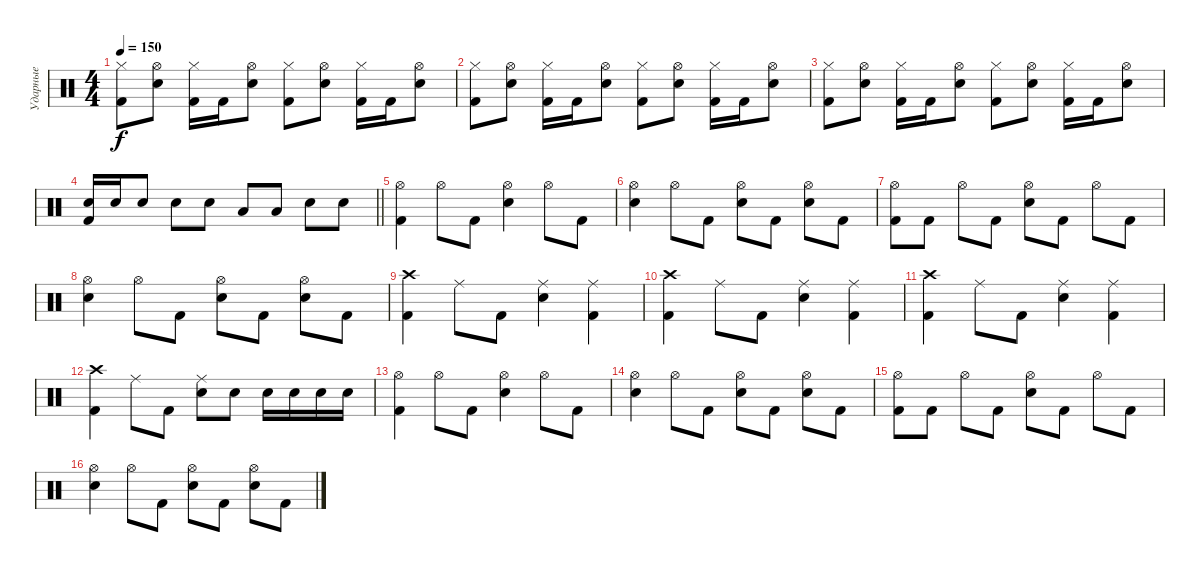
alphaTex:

\track ("Ударные" "Ударные") {instrument percussion}
\staff {score}
\articulation defaults
\ts (4 4)
\tempo 150
\clef neutral
\ks c
("Hi-Hat (closed)" "Kick (hit) 2").8{dy f} ("Hi-Hat (open)" "Snare (hit) 2").8 ("Hi-Hat (closed)" "Kick (hit) 2").16 "Kick (hit) 2".16 ("Hi-Hat (open)" "Snare (hit) 2").8 ("Hi-Hat (closed)" "Kick (hit) 2").8 ("Hi-Hat (open)" "Snare (hit) 2").8 ("Hi-Hat (closed)" "Kick (hit) 2").16 "Kick (hit) 2".16 ("Hi-Hat (open)" "Snare (hit) 2").8 |
("Hi-Hat (closed)" "Kick (hit) 2").8 ("Hi-Hat (open)" "Snare (hit) 2").8 ("Hi-Hat (closed)" "Kick (hit) 2").16 "Kick (hit) 2".16 ("Hi-Hat (open)" "Snare (hit) 2").8 ("Hi-Hat (closed)" "Kick (hit) 2").8 ("Hi-Hat (open)" "Snare (hit) 2").8 ("Hi-Hat (closed)" "Kick (hit) 2").16 "Kick (hit) 2".16 ("Hi-Hat (open)" "Snare (hit) 2").8 |
("Hi-Hat (closed)" "Kick (hit) 2").8 ("Hi-Hat (open)" "Snare (hit) 2").8 ("Hi-Hat (closed)" "Kick (hit) 2").16 "Kick (hit) 2".16 ("Hi-Hat (open)" "Snare (hit) 2").8 ("Hi-Hat (closed)" "Kick (hit) 2").8 ("Hi-Hat (open)" "Snare (hit) 2").8 ("Hi-Hat (closed)" "Kick (hit) 2").16 "Kick (hit) 2".16 ("Hi-Hat (open)" "Snare (hit) 2").8 |
\barLineRight lightlight
("Snare (hit) 2" "Kick (hit) 2").16 "Snare (hit) 2".16 "Snare (hit) 2".8 "Snare (hit) 2".8 "Snare (hit) 2".8 "Low Tom (hit)".8 "Low Tom (hit)".8 "Snare (hit) 2".8 "Snare (hit) 2".8 |
("Hi-Hat (open)" "Kick (hit) 2").4 "Hi-Hat (open)".8 "Kick (hit) 2".8 ("Hi-Hat (open)" "Snare (hit) 2").4 "Hi-Hat (open)".8 "Kick (hit) 2".8 |
("Hi-Hat (open)" "Snare (hit) 2").4 "Hi-Hat (open)".8 "Kick (hit) 2".8 ("Hi-Hat (open)" "Snare (hit) 2").8 "Kick (hit) 2".8 ("Hi-Hat (open)" "Snare (hit) 2").8 "Kick (hit) 2".8 |
("Hi-Hat (open)" "Kick (hit) 2").8 "Kick (hit) 2".8 "Hi-Hat (open)".8 "Kick (hit) 2".8 ("Hi-Hat (open)" "Snare (hit) 2").8 "Kick (hit) 2".8 "Hi-Hat (open)".8 "Kick (hit) 2".8 |
("Hi-Hat (open)" "Snare (hit) 2").4 "Hi-Hat (open)".8 "Kick (hit) 2".8 ("Hi-Hat (open)" "Snare (hit) 2").8 "Kick (hit) 2".8 ("Hi-Hat (open)" "Snare (hit) 2").8 "Kick (hit) 2".8 |
("Crash high (hit)" "Kick (hit) 2").4 "Ride (middle)".8 "Kick (hit) 2".8 ("Ride (middle)" "Snare (hit) 2").4 ("Ride (middle)" "Kick (hit) 2").4 |
("Crash high (hit)" "Kick (hit) 2").4 "Ride (middle)".8 "Kick (hit) 2".8 ("Ride (middle)" "Snare (hit) 2").4 ("Ride (middle)" "Kick (hit) 2").4 |
("Crash high (hit)" "Kick (hit) 2").4 "Ride (middle)".8 "Kick (hit) 2".8 ("Ride (middle)" "Snare (hit) 2").4 ("Ride (middle)" "Kick (hit) 2").4 |
("Crash high (hit)" "Kick (hit) 2").4 "Ride (middle)".8 "Kick (hit) 2".8 ("Ride (middle)" "Snare (hit) 2").8 "Snare (hit) 2".8 "Snare (hit) 2".16 "Snare (hit) 2".16 "Snare (hit) 2".16 "Snare (hit) 2".16 |
("Hi-Hat (open)" "Kick (hit) 2").4 "Hi-Hat (open)".8 "Kick (hit) 2".8 ("Hi-Hat (open)" "Snare (hit) 2").4 "Hi-Hat (open)".8 "Kick (hit) 2".8 |
("Hi-Hat (open)" "Snare (hit) 2").4 "Hi-Hat (open)".8 "Kick (hit) 2".8 ("Hi-Hat (open)" "Snare (hit) 2").8 "Kick (hit) 2".8 ("Hi-Hat (open)" "Snare (hit) 2").8 "Kick (hit) 2".8 |
("Hi-Hat (open)" "Kick (hit) 2").8 "Kick (hit) 2".8 "Hi-Hat (open)".8 "Kick (hit) 2".8 ("Hi-Hat (open)" "Snare (hit) 2").8 "Kick (hit) 2".8 "Hi-Hat (open)".8 "Kick (hit) 2".8 |
("Hi-Hat (open)" "Snare (hit) 2").4 "Hi-Hat (open)".8 "Kick (hit) 2".8 ("Hi-Hat (open)" "Snare (hit) 2").8 "Kick (hit) 2".8 ("Hi-Hat (open)" "Snare (hit) 2").8 "Kick (hit) 2".8
